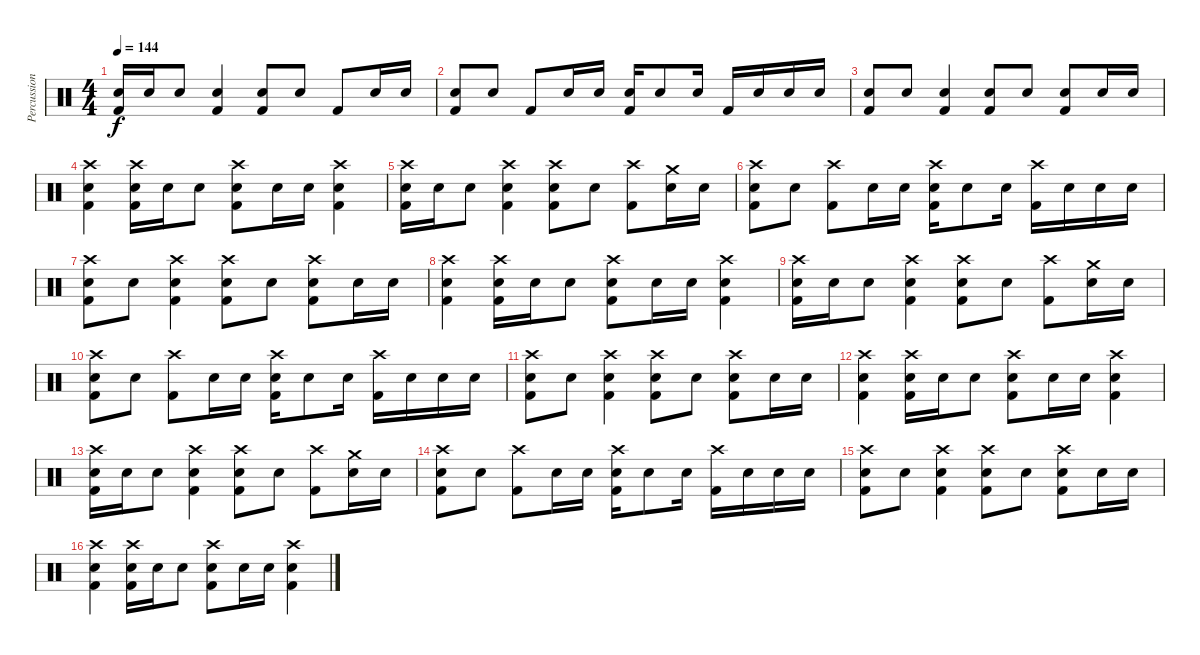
\track ("Percussion" "Percussion") {instrument percussion}
\staff {score}
\articulation defaults
\ts (4 4)
\tempo 144
\clef neutral
\ks c
("Electric Snare (hit)" "Kick (hit) 2").16{dy f} "Electric Snare (hit)".16 "Electric Snare (hit)".8 ("Electric Snare (hit)" "Kick (hit) 2").4 ("Electric Snare (hit)" "Kick (hit) 2").8 "Electric Snare (hit)".8 "Kick (hit) 2".8 "Electric Snare (hit)".16 "Electric Snare (hit)".16 |
("Electric Snare (hit)" "Kick (hit) 2").8 "Electric Snare (hit)".8 "Kick (hit) 2".8 "Electric Snare (hit)".16 "Electric Snare (hit)".16 ("Electric Snare (hit)" "Kick (hit) 2").16 "Electric Snare (hit)".8 "Electric Snare (hit)".16 "Kick (hit) 2".16 "Electric Snare (hit)".16 "Electric Snare (hit)".16 "Electric Snare (hit)".16 |
("Electric Snare (hit)" "Kick (hit) 2").8 "Electric Snare (hit)".8 ("Electric Snare (hit)" "Kick (hit) 2").4 ("Electric Snare (hit)" "Kick (hit) 2").8 "Electric Snare (hit)".8 ("Electric Snare (hit)" "Kick (hit) 2").8 "Electric Snare (hit)".16 "Electric Snare (hit)".16 |
("Crash high (hit)" "Electric Snare (hit)" "Kick (hit) 2").4 ("Crash high (hit)" "Electric Snare (hit)" "Kick (hit) 2").16 "Electric Snare (hit)".16 "Electric Snare (hit)".8 ("Crash high (hit)" "Electric Snare (hit)" "Kick (hit) 2").8 "Electric Snare (hit)".16 "Electric Snare (hit)".16 ("Crash high (hit)" "Electric Snare (hit)" "Kick (hit) 2").4 |
("Crash high (hit)" "Electric Snare (hit)" "Kick (hit) 2").16 "Electric Snare (hit)".16 "Electric Snare (hit)".8 ("Crash high (hit)" "Electric Snare (hit)" "Kick (hit) 2").4 ("Crash high (hit)" "Electric Snare (hit)" "Kick (hit) 2").8 "Electric Snare (hit)".8 ("Crash high (hit)" "Kick (hit) 2").8 ("Crash medium (hit)" "Electric Snare (hit)").16 "Electric Snare (hit)".16 |
("Crash high (hit)" "Electric Snare (hit)" "Kick (hit) 2").8 "Electric Snare (hit)".8 ("Crash high (hit)" "Kick (hit) 2").8 "Electric Snare (hit)".16 "Electric Snare (hit)".16 ("Crash high (hit)" "Electric Snare (hit)" "Kick (hit) 2").16 "Electric Snare (hit)".8 "Electric Snare (hit)".16 ("Crash high (hit)" "Kick (hit) 2").16 "Electric Snare (hit)".16 "Electric Snare (hit)".16 "Electric Snare (hit)".16 |
("Crash high (hit)" "Electric Snare (hit)" "Kick (hit) 2").8 "Electric Snare (hit)".8 ("Crash high (hit)" "Electric Snare (hit)" "Kick (hit) 2").4 ("Crash high (hit)" "Electric Snare (hit)" "Kick (hit) 2").8 "Electric Snare (hit)".8 ("Crash high (hit)" "Electric Snare (hit)" "Kick (hit) 2").8 "Electric Snare (hit)".16 "Electric Snare (hit)".16 |
("Crash high (hit)" "Electric Snare (hit)" "Kick (hit) 2").4 ("Crash high (hit)" "Electric Snare (hit)" "Kick (hit) 2").16 "Electric Snare (hit)".16 "Electric Snare (hit)".8 ("Crash high (hit)" "Electric Snare (hit)" "Kick (hit) 2").8 "Electric Snare (hit)".16 "Electric Snare (hit)".16 ("Crash high (hit)" "Electric Snare (hit)" "Kick (hit) 2").4 |
("Crash high (hit)" "Electric Snare (hit)" "Kick (hit) 2").16 "Electric Snare (hit)".16 "Electric Snare (hit)".8 ("Crash high (hit)" "Electric Snare (hit)" "Kick (hit) 2").4 ("Crash high (hit)" "Electric Snare (hit)" "Kick (hit) 2").8 "Electric Snare (hit)".8 ("Crash high (hit)" "Kick (hit) 2").8 ("Crash medium (hit)" "Electric Snare (hit)").16 "Electric Snare (hit)".16 |
("Crash high (hit)" "Electric Snare (hit)" "Kick (hit) 2").8 "Electric Snare (hit)".8 ("Crash high (hit)" "Kick (hit) 2").8 "Electric Snare (hit)".16 "Electric Snare (hit)".16 ("Crash high (hit)" "Electric Snare (hit)" "Kick (hit) 2").16 "Electric Snare (hit)".8 "Electric Snare (hit)".16 ("Crash high (hit)" "Kick (hit) 2").16 "Electric Snare (hit)".16 "Electric Snare (hit)".16 "Electric Snare (hit)".16 |
("Crash high (hit)" "Electric Snare (hit)" "Kick (hit) 2").8 "Electric Snare (hit)".8 ("Crash high (hit)" "Electric Snare (hit)" "Kick (hit) 2").4 ("Crash high (hit)" "Electric Snare (hit)" "Kick (hit) 2").8 "Electric Snare (hit)".8 ("Crash high (hit)" "Electric Snare (hit)" "Kick (hit) 2").8 "Electric Snare (hit)".16 "Electric Snare (hit)".16 |
("Crash high (hit)" "Electric Snare (hit)" "Kick (hit) 2").4 ("Crash high (hit)" "Electric Snare (hit)" "Kick (hit) 2").16 "Electric Snare (hit)".16 "Electric Snare (hit)".8 ("Crash high (hit)" "Electric Snare (hit)" "Kick (hit) 2").8 "Electric Snare (hit)".16 "Electric Snare (hit)".16 ("Crash high (hit)" "Electric Snare (hit)" "Kick (hit) 2").4 |
("Crash high (hit)" "Electric Snare (hit)" "Kick (hit) 2").16 "Electric Snare (hit)".16 "Electric Snare (hit)".8 ("Crash high (hit)" "Electric Snare (hit)" "Kick (hit) 2").4 ("Crash high (hit)" "Electric Snare (hit)" "Kick (hit) 2").8 "Electric Snare (hit)".8 ("Crash high (hit)" "Kick (hit) 2").8 ("Crash medium (hit)" "Electric Snare (hit)").16 "Electric Snare (hit)".16 |
("Crash high (hit)" "Electric Snare (hit)" "Kick (hit) 2").8 "Electric Snare (hit)".8 ("Crash high (hit)" "Kick (hit) 2").8 "Electric Snare (hit)".16 "Electric Snare (hit)".16 ("Crash high (hit)" "Electric Snare (hit)" "Kick (hit) 2").16 "Electric Snare (hit)".8 "Electric Snare (hit)".16 ("Crash high (hit)" "Kick (hit) 2").16 "Electric Snare (hit)".16 "Electric Snare (hit)".16 "Electric Snare (hit)".16 |
("Crash high (hit)" "Electric Snare (hit)" "Kick (hit) 2").8 "Electric Snare (hit)".8 ("Crash high (hit)" "Electric Snare (hit)" "Kick (hit) 2").4 ("Crash high (hit)" "Electric Snare (hit)" "Kick (hit) 2").8 "Electric Snare (hit)".8 ("Crash high (hit)" "Electric Snare (hit)" "Kick (hit) 2").8 "Electric Snare (hit)".16 "Electric Snare (hit)".16 |
("Crash high (hit)" "Electric Snare (hit)" "Kick (hit) 2").4 ("Crash high (hit)" "Electric Snare (hit)" "Kick (hit) 2").16 "Electric Snare (hit)".16 "Electric Snare (hit)".8 ("Crash high (hit)" "Electric Snare (hit)" "Kick (hit) 2").8 "Electric Snare (hit)".16 "Electric Snare (hit)".16 ("Crash high (hit)" "Electric Snare (hit)" "Kick (hit) 2").4
